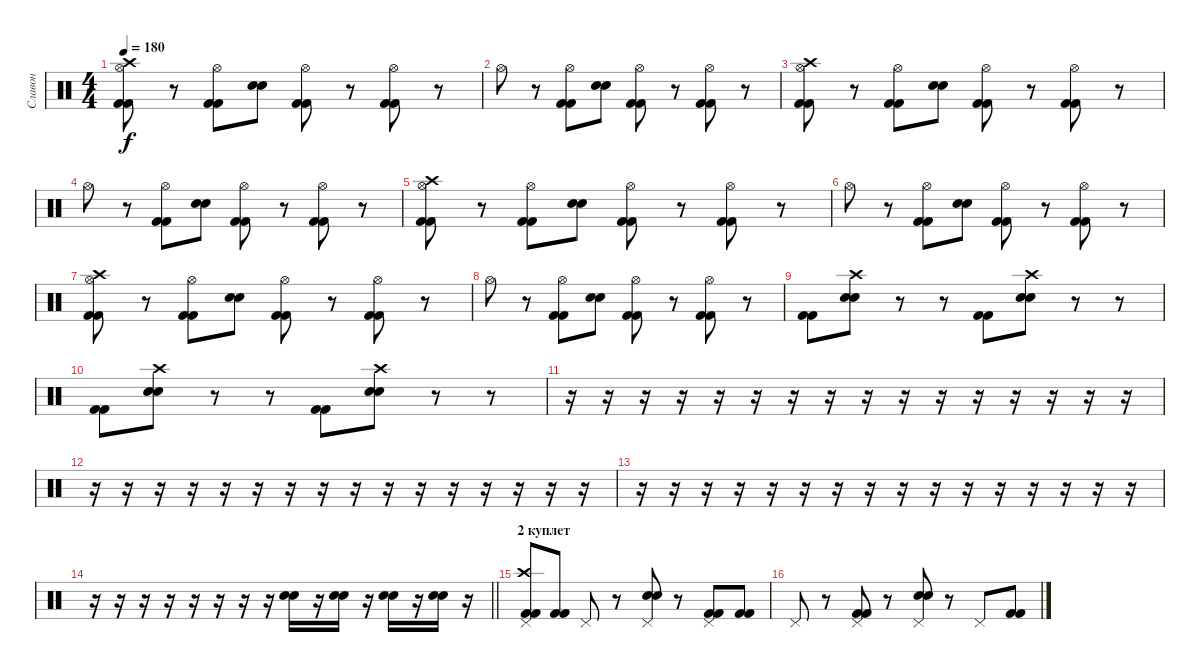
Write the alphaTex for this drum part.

\track ("Славон" "Славон") {instrument percussion}
\staff {score}
\articulation defaults
\ts (4 4)
\tempo 180
\clef neutral
\ks c
("Hi-Hat (open)" "Kick (hit) 2" "Kick (hit) 2" "Crash high (hit)").8{dy f} r.8 ("Hi-Hat (open)" "Kick (hit) 2" "Kick (hit) 2").8 ("Electric Snare (hit)" "Electric Snare (hit)").8 ("Hi-Hat (open)" "Kick (hit) 2" "Kick (hit) 2").8 r.8 ("Hi-Hat (open)" "Kick (hit) 2" "Kick (hit) 2").8 r.8 |
"Hi-Hat (open)".8 r.8 ("Hi-Hat (open)" "Kick (hit) 2" "Kick (hit) 2").8 ("Electric Snare (hit)" "Electric Snare (hit)").8 ("Hi-Hat (open)" "Kick (hit) 2" "Kick (hit) 2").8 r.8 ("Hi-Hat (open)" "Kick (hit) 2" "Kick (hit) 2").8 r.8 |
("Hi-Hat (open)" "Kick (hit) 2" "Kick (hit) 2" "Crash high (hit)").8 r.8 ("Hi-Hat (open)" "Kick (hit) 2" "Kick (hit) 2").8 ("Electric Snare (hit)" "Electric Snare (hit)").8 ("Hi-Hat (open)" "Kick (hit) 2" "Kick (hit) 2").8 r.8 ("Hi-Hat (open)" "Kick (hit) 2" "Kick (hit) 2").8 r.8 |
"Hi-Hat (open)".8 r.8 ("Hi-Hat (open)" "Kick (hit) 2" "Kick (hit) 2").8 ("Electric Snare (hit)" "Electric Snare (hit)").8 ("Hi-Hat (open)" "Kick (hit) 2" "Kick (hit) 2").8 r.8 ("Hi-Hat (open)" "Kick (hit) 2" "Kick (hit) 2").8 r.8 |
("Hi-Hat (open)" "Kick (hit) 2" "Kick (hit) 2" "Crash high (hit)").8 r.8 ("Hi-Hat (open)" "Kick (hit) 2" "Kick (hit) 2").8 ("Electric Snare (hit)" "Electric Snare (hit)").8 ("Hi-Hat (open)" "Kick (hit) 2" "Kick (hit) 2").8 r.8 ("Hi-Hat (open)" "Kick (hit) 2" "Kick (hit) 2").8 r.8 |
"Hi-Hat (open)".8 r.8 ("Hi-Hat (open)" "Kick (hit) 2" "Kick (hit) 2").8 ("Electric Snare (hit)" "Electric Snare (hit)").8 ("Hi-Hat (open)" "Kick (hit) 2" "Kick (hit) 2").8 r.8 ("Hi-Hat (open)" "Kick (hit) 2" "Kick (hit) 2").8 r.8 |
("Hi-Hat (open)" "Kick (hit) 2" "Kick (hit) 2" "Crash high (hit)").8 r.8 ("Hi-Hat (open)" "Kick (hit) 2" "Kick (hit) 2").8 ("Electric Snare (hit)" "Electric Snare (hit)").8 ("Hi-Hat (open)" "Kick (hit) 2" "Kick (hit) 2").8 r.8 ("Hi-Hat (open)" "Kick (hit) 2" "Kick (hit) 2").8 r.8 |
"Hi-Hat (open)".8 r.8 ("Hi-Hat (open)" "Kick (hit) 2" "Kick (hit) 2").8 ("Electric Snare (hit)" "Electric Snare (hit)").8 ("Hi-Hat (open)" "Kick (hit) 2" "Kick (hit) 2").8 r.8 ("Hi-Hat (open)" "Kick (hit) 2" "Kick (hit) 2").8 r.8 |
("Kick (hit) 2" "Kick (hit) 2").8 ("Crash high (hit)" "Electric Snare (hit)" "Electric Snare (hit)").8 r.8 r.8 ("Kick (hit) 2" "Kick (hit) 2").8 ("Crash high (hit)" "Electric Snare (hit)" "Electric Snare (hit)").8 r.8 r.8 |
("Kick (hit) 2" "Kick (hit) 2").8 ("Crash high (hit)" "Electric Snare (hit)" "Electric Snare (hit)").8 r.8 r.8 ("Kick (hit) 2" "Kick (hit) 2").8 ("Crash high (hit)" "Electric Snare (hit)" "Electric Snare (hit)").8 r.8 r.8 |
r.16 r.16 r.16 r.16 r.16 r.16 r.16 r.16 r.16 r.16 r.16 r.16 r.16 r.16 r.16 r.16 |
r.16 r.16 r.16 r.16 r.16 r.16 r.16 r.16 r.16 r.16 r.16 r.16 r.16 r.16 r.16 r.16 |
r.16 r.16 r.16 r.16 r.16 r.16 r.16 r.16 r.16 r.16 r.16 r.16 r.16 r.16 r.16 r.16 |
\barLineRight lightlight
r.16 r.16 r.16 r.16 r.16 r.16 r.16 r.16 ("Electric Snare (hit)" "Electric Snare (hit)").16 r.16 ("Electric Snare (hit)" "Electric Snare (hit)").16 r.16 ("Electric Snare (hit)" "Electric Snare (hit)").16 r.16 ("Electric Snare (hit)" "Electric Snare (hit)").16 r.16 |
\section ("" "2 куплет")
("Pedal Hi-Hat (hit)" "Kick (hit) 2" "Kick (hit) 2" "Crash high (hit)").8 ("Kick (hit) 2" "Kick (hit) 2").8 "Pedal Hi-Hat (hit)".8 r.8 ("Pedal Hi-Hat (hit)" "Electric Snare (hit)" "Electric Snare (hit)").8 r.8 ("Pedal Hi-Hat (hit)" "Kick (hit) 2" "Kick (hit) 2").8 ("Kick (hit) 2" "Kick (hit) 2").8 |
"Pedal Hi-Hat (hit)".8 r.8 ("Pedal Hi-Hat (hit)" "Kick (hit) 2" "Kick (hit) 2").8 r.8 ("Pedal Hi-Hat (hit)" "Electric Snare (hit)" "Electric Snare (hit)").8 r.8 "Pedal Hi-Hat (hit)".8 ("Kick (hit) 2" "Kick (hit) 2").8
